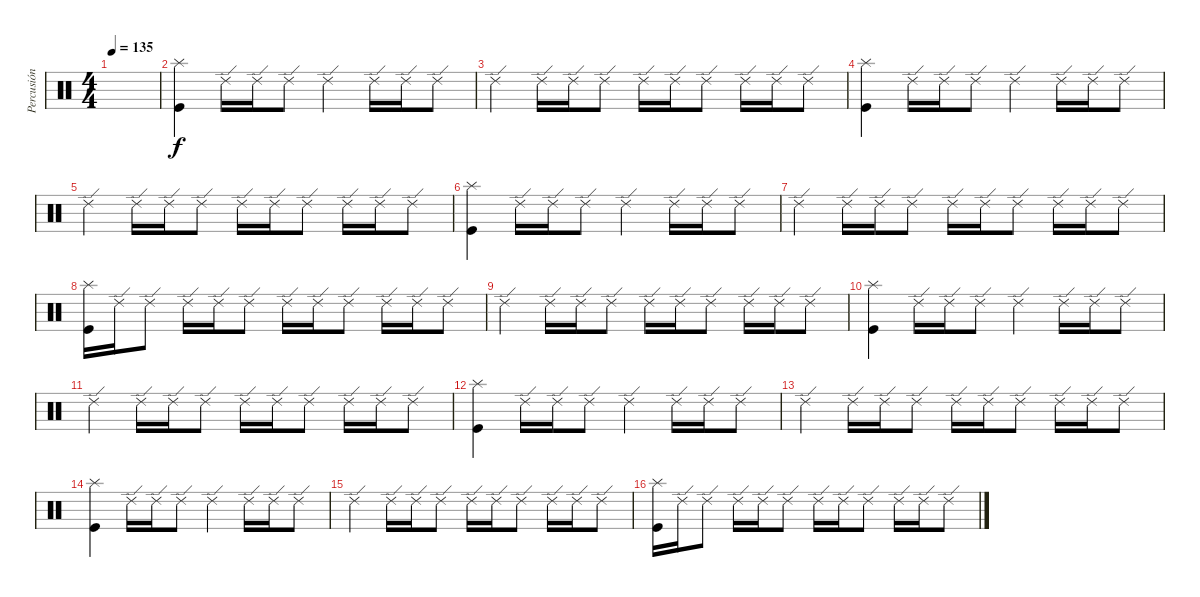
\track ("Percusión" "Percusión") {instrument percussion}
\staff {score}
\articulation defaults
\ts (4 4)
\tempo 135
\clef neutral
\ks c
|
("Splash (hit)" "Kick (hit)").4 "Ride (edge) 2".16 "Ride (edge) 2".16 "Ride (edge) 2".8 "Ride (edge) 2".4 "Ride (edge) 2".16 "Ride (edge) 2".16 "Ride (edge) 2".8 |
"Ride (edge) 2".4 "Ride (edge) 2".16 "Ride (edge) 2".16 "Ride (edge) 2".8 "Ride (edge) 2".16 "Ride (edge) 2".16 "Ride (edge) 2".8 "Ride (edge) 2".16 "Ride (edge) 2".16 "Ride (edge) 2".8 |
("Splash (hit)" "Kick (hit)").4 "Ride (edge) 2".16 "Ride (edge) 2".16 "Ride (edge) 2".8 "Ride (edge) 2".4 "Ride (edge) 2".16 "Ride (edge) 2".16 "Ride (edge) 2".8 |
"Ride (edge) 2".4 "Ride (edge) 2".16 "Ride (edge) 2".16 "Ride (edge) 2".8 "Ride (edge) 2".16 "Ride (edge) 2".16 "Ride (edge) 2".8 "Ride (edge) 2".16 "Ride (edge) 2".16 "Ride (edge) 2".8 |
("Splash (hit)" "Kick (hit)").4 "Ride (edge) 2".16 "Ride (edge) 2".16 "Ride (edge) 2".8 "Ride (edge) 2".4 "Ride (edge) 2".16 "Ride (edge) 2".16 "Ride (edge) 2".8 |
"Ride (edge) 2".4 "Ride (edge) 2".16 "Ride (edge) 2".16 "Ride (edge) 2".8 "Ride (edge) 2".16 "Ride (edge) 2".16 "Ride (edge) 2".8 "Ride (edge) 2".16 "Ride (edge) 2".16 "Ride (edge) 2".8 |
("Splash (hit)" "Kick (hit)").16 "Ride (edge) 2".16 "Ride (edge) 2".8 "Ride (edge) 2".16 "Ride (edge) 2".16 "Ride (edge) 2".8 "Ride (edge) 2".16 "Ride (edge) 2".16 "Ride (edge) 2".8 "Ride (edge) 2".16 "Ride (edge) 2".16 "Ride (edge) 2".8 |
"Ride (edge) 2".4 "Ride (edge) 2".16 "Ride (edge) 2".16 "Ride (edge) 2".8 "Ride (edge) 2".16 "Ride (edge) 2".16 "Ride (edge) 2".8 "Ride (edge) 2".16 "Ride (edge) 2".16 "Ride (edge) 2".8 |
("Splash (hit)" "Kick (hit)").4 "Ride (edge) 2".16 "Ride (edge) 2".16 "Ride (edge) 2".8 "Ride (edge) 2".4 "Ride (edge) 2".16 "Ride (edge) 2".16 "Ride (edge) 2".8 |
"Ride (edge) 2".4 "Ride (edge) 2".16 "Ride (edge) 2".16 "Ride (edge) 2".8 "Ride (edge) 2".16 "Ride (edge) 2".16 "Ride (edge) 2".8 "Ride (edge) 2".16 "Ride (edge) 2".16 "Ride (edge) 2".8 |
("Splash (hit)" "Kick (hit)").4 "Ride (edge) 2".16 "Ride (edge) 2".16 "Ride (edge) 2".8 "Ride (edge) 2".4 "Ride (edge) 2".16 "Ride (edge) 2".16 "Ride (edge) 2".8 |
"Ride (edge) 2".4 "Ride (edge) 2".16 "Ride (edge) 2".16 "Ride (edge) 2".8 "Ride (edge) 2".16 "Ride (edge) 2".16 "Ride (edge) 2".8 "Ride (edge) 2".16 "Ride (edge) 2".16 "Ride (edge) 2".8 |
("Splash (hit)" "Kick (hit)").4 "Ride (edge) 2".16 "Ride (edge) 2".16 "Ride (edge) 2".8 "Ride (edge) 2".4 "Ride (edge) 2".16 "Ride (edge) 2".16 "Ride (edge) 2".8 |
"Ride (edge) 2".4 "Ride (edge) 2".16 "Ride (edge) 2".16 "Ride (edge) 2".8 "Ride (edge) 2".16 "Ride (edge) 2".16 "Ride (edge) 2".8 "Ride (edge) 2".16 "Ride (edge) 2".16 "Ride (edge) 2".8 |
("Splash (hit)" "Kick (hit)").16 "Ride (edge) 2".16 "Ride (edge) 2".8 "Ride (edge) 2".16 "Ride (edge) 2".16 "Ride (edge) 2".8 "Ride (edge) 2".16 "Ride (edge) 2".16 "Ride (edge) 2".8 "Ride (edge) 2".16 "Ride (edge) 2".16 "Ride (edge) 2".8
